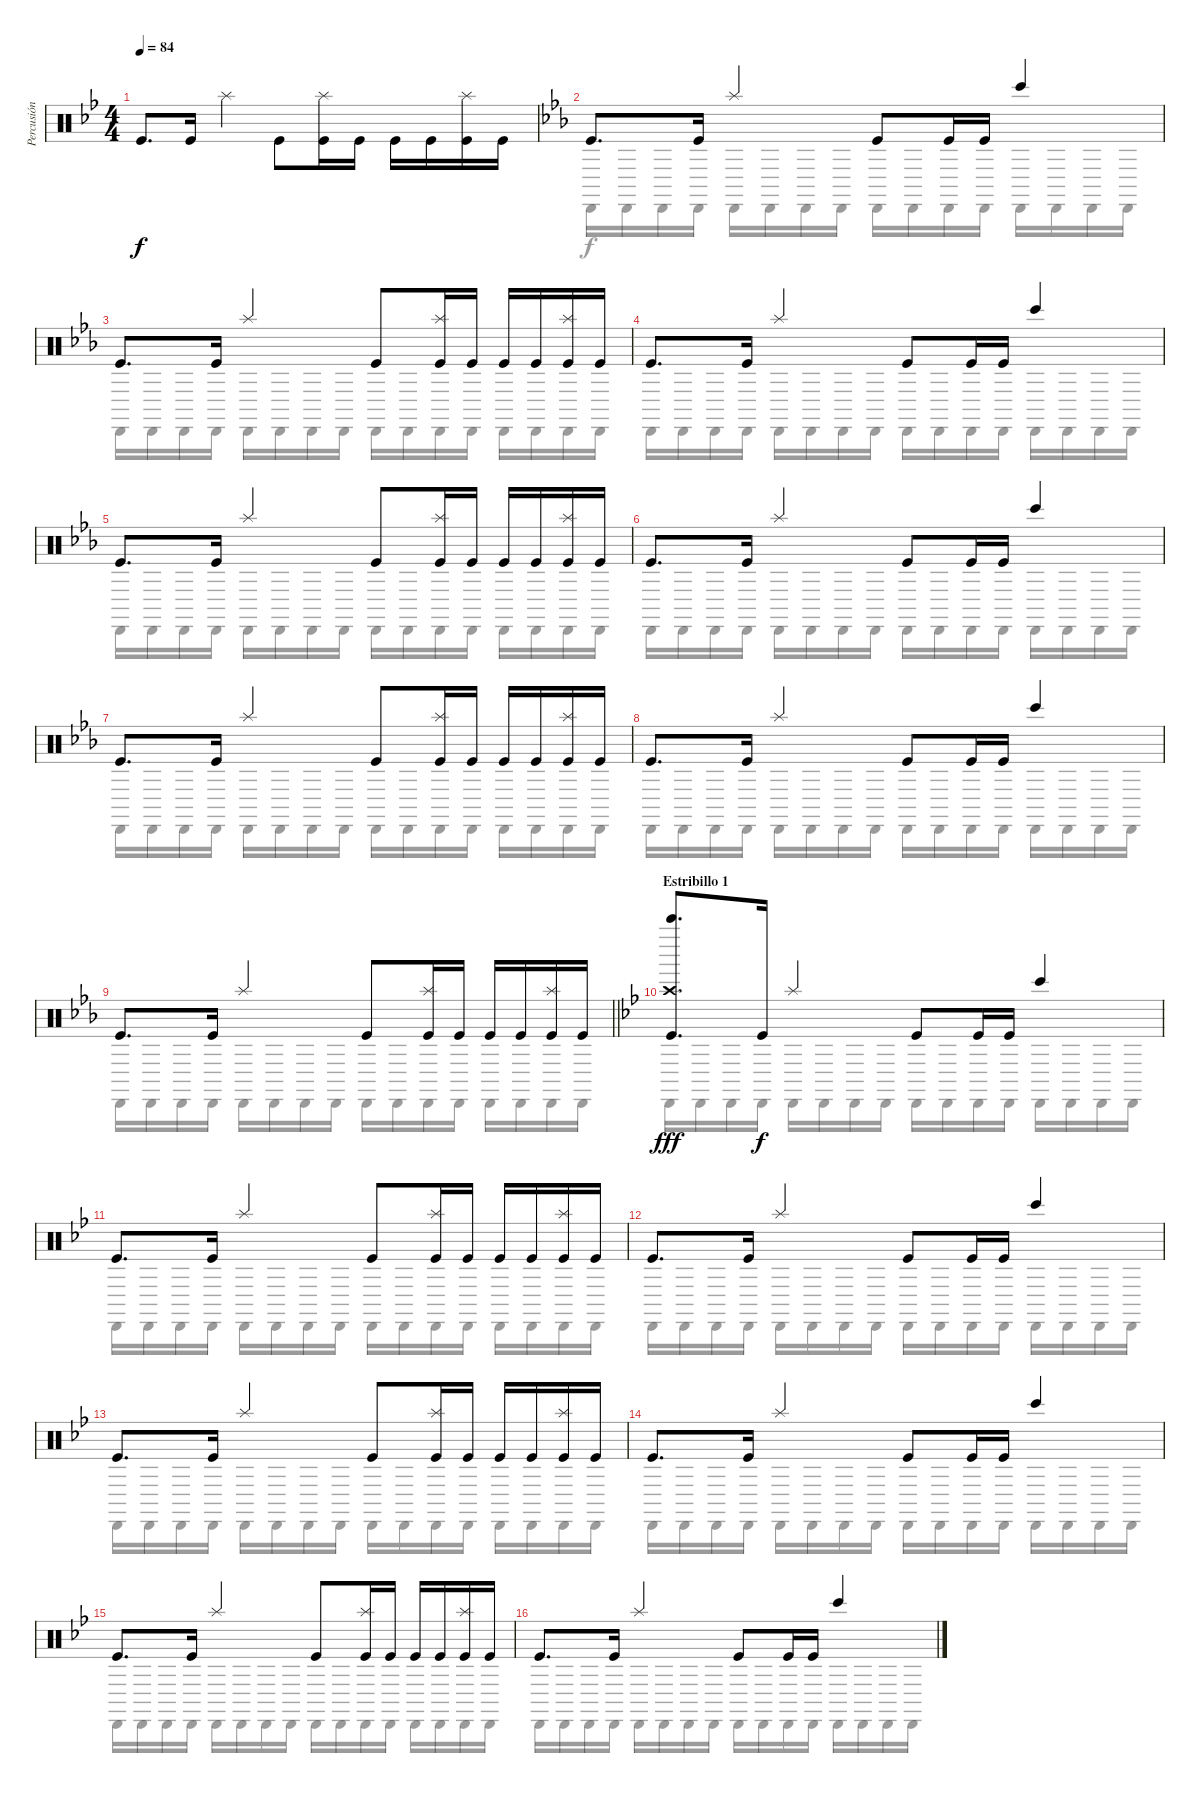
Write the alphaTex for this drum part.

\track ("Percusión" "Percusión") {instrument percussion}
\staff {score}
\articulation defaults
\voice
\ts (4 4)
\tempo 84
\clef neutral
\ks bb "Kick (hit)".8{d dy f} "Kick (hit)".16 "Splash (hit)".4 "Kick (hit)".8
("Splash (hit)" "Kick (hit)").16 "Kick (hit)".16 "Kick (hit)".16 "Kick (hit)".16 ("Splash (hit)" "Kick (hit)").16 "Kick (hit)".16 |
\ks eb "Kick (hit)".8{d} "Kick (hit)".16 "Splash (hit)".4 "Kick (hit)".8 "Kick (hit)".16 "Kick (hit)".16 "Bongo High (hit)".4
|
"Kick (hit)".8{d} "Kick (hit)".16 "Splash (hit)".4 "Kick (hit)".8 ("Splash (hit)" "Kick (hit)").16 "Kick (hit)".16 "Kick (hit)".16 "Kick (hit)".16 ("Splash (hit)" "Kick (hit)").16 "Kick (hit)".16 |
"Kick (hit)".8{d} "Kick (hit)".16 "Splash (hit)".4 "Kick (hit)".8 "Kick (hit)".16 "Kick (hit)".16 "Bongo High (hit)".4 |
"Kick (hit)".8{d} "Kick (hit)".16 "Splash (hit)".4 "Kick (hit)".8 ("Splash (hit)" "Kick (hit)").16 "Kick (hit)".16 "Kick (hit)".16 "Kick (hit)".16 ("Splash (hit)" "Kick (hit)").16 "Kick (hit)".16 |
"Kick (hit)".8{d} "Kick (hit)".16 "Splash (hit)".4 "Kick (hit)".8 "Kick (hit)".16 "Kick (hit)".16 "Bongo High (hit)".4 |
"Kick (hit)".8{d} "Kick (hit)".16 "Splash (hit)".4 "Kick (hit)".8 ("Splash (hit)" "Kick (hit)").16 "Kick (hit)".16 "Kick (hit)".16 "Kick (hit)".16 ("Splash (hit)" "Kick (hit)").16 "Kick (hit)".16 |
"Kick (hit)".8{d} "Kick (hit)".16 "Splash (hit)".4 "Kick (hit)".8 "Kick (hit)".16 "Kick (hit)".16 "Bongo High (hit)".4 |
\barLineRight lightlight "Kick (hit)".8{d} "Kick (hit)".16 "Splash (hit)".4 "Kick (hit)".8
("Splash (hit)" "Kick (hit)").16 "Kick (hit)".16 "Kick (hit)".16 "Kick (hit)".16 ("Splash (hit)" "Kick (hit)").16 "Kick (hit)".16 |
\section ("" "Estribillo 1")
\ks bb
("Bell Tree (hit)" "Crash high (hit)" "Kick (hit)").8{d dy fff} "Kick (hit)".16{dy f} "Splash (hit)".4 "Kick (hit)".8 "Kick (hit)".16 "Kick (hit)".16 "Bongo High (hit)".4 |
"Kick (hit)".8{d} "Kick (hit)".16 "Splash (hit)".4 "Kick (hit)".8 ("Splash (hit)" "Kick (hit)").16 "Kick (hit)".16 "Kick (hit)".16 "Kick (hit)".16 ("Splash (hit)" "Kick (hit)").16 "Kick (hit)".16 |
"Kick (hit)".8{d} "Kick (hit)".16 "Splash (hit)".4 "Kick (hit)".8 "Kick (hit)".16 "Kick (hit)".16 "Bongo High (hit)".4 |
"Kick (hit)".8{d} "Kick (hit)".16 "Splash (hit)".4 "Kick (hit)".8 ("Splash (hit)" "Kick (hit)").16 "Kick (hit)".16 "Kick (hit)".16 "Kick (hit)".16 ("Splash (hit)" "Kick (hit)").16 "Kick (hit)".16 |
"Kick (hit)".8{d} "Kick (hit)".16 "Splash (hit)".4 "Kick (hit)".8 "Kick (hit)".16 "Kick (hit)".16 "Bongo High (hit)".4 |
"Kick (hit)".8{d} "Kick (hit)".16 "Splash (hit)".4 "Kick (hit)".8 ("Splash (hit)" "Kick (hit)").16 "Kick (hit)".16 "Kick (hit)".16 "Kick (hit)".16 ("Splash (hit)" "Kick (hit)").16 "Kick (hit)".16 |
"Kick (hit)".8{d} "Kick (hit)".16 "Splash (hit)".4 "Kick (hit)".8 "Kick (hit)".16 "Kick (hit)".16 "Bongo High (hit)".4
\voice
\clef neutral
\ottava regular
\simile none
\ks bb
|
\ks eb "Cabasa (hit)".16 "Cabasa (hit)".16 "Cabasa (hit)".16 "Cabasa (hit)".16 "Cabasa (hit)".16 "Cabasa (hit)".16 "Cabasa (hit)".16 "Cabasa (hit)".16 "Cabasa (hit)".16 "Cabasa (hit)".16 "Cabasa (hit)".16 "Cabasa (hit)".16 "Cabasa (hit)".16 "Cabasa (hit)".16 "Cabasa (hit)".16 "Cabasa (hit)".16
|
"Cabasa (hit)".16 "Cabasa (hit)".16 "Cabasa (hit)".16 "Cabasa (hit)".16 "Cabasa (hit)".16 "Cabasa (hit)".16 "Cabasa (hit)".16 "Cabasa (hit)".16 "Cabasa (hit)".16 "Cabasa (hit)".16 "Cabasa (hit)".16 "Cabasa (hit)".16 "Cabasa (hit)".16 "Cabasa (hit)".16 "Cabasa (hit)".16 "Cabasa (hit)".16 |
"Cabasa (hit)".16 "Cabasa (hit)".16 "Cabasa (hit)".16 "Cabasa (hit)".16 "Cabasa (hit)".16 "Cabasa (hit)".16 "Cabasa (hit)".16 "Cabasa (hit)".16 "Cabasa (hit)".16 "Cabasa (hit)".16 "Cabasa (hit)".16 "Cabasa (hit)".16 "Cabasa (hit)".16 "Cabasa (hit)".16 "Cabasa (hit)".16 "Cabasa (hit)".16 |
"Cabasa (hit)".16 "Cabasa (hit)".16 "Cabasa (hit)".16 "Cabasa (hit)".16 "Cabasa (hit)".16 "Cabasa (hit)".16 "Cabasa (hit)".16 "Cabasa (hit)".16 "Cabasa (hit)".16 "Cabasa (hit)".16 "Cabasa (hit)".16 "Cabasa (hit)".16 "Cabasa (hit)".16 "Cabasa (hit)".16 "Cabasa (hit)".16 "Cabasa (hit)".16 |
"Cabasa (hit)".16 "Cabasa (hit)".16 "Cabasa (hit)".16 "Cabasa (hit)".16 "Cabasa (hit)".16 "Cabasa (hit)".16 "Cabasa (hit)".16 "Cabasa (hit)".16 "Cabasa (hit)".16 "Cabasa (hit)".16 "Cabasa (hit)".16 "Cabasa (hit)".16 "Cabasa (hit)".16 "Cabasa (hit)".16 "Cabasa (hit)".16 "Cabasa (hit)".16 |
"Cabasa (hit)".16 "Cabasa (hit)".16 "Cabasa (hit)".16 "Cabasa (hit)".16 "Cabasa (hit)".16 "Cabasa (hit)".16 "Cabasa (hit)".16 "Cabasa (hit)".16 "Cabasa (hit)".16 "Cabasa (hit)".16 "Cabasa (hit)".16 "Cabasa (hit)".16 "Cabasa (hit)".16 "Cabasa (hit)".16 "Cabasa (hit)".16 "Cabasa (hit)".16 |
"Cabasa (hit)".16 "Cabasa (hit)".16 "Cabasa (hit)".16 "Cabasa (hit)".16 "Cabasa (hit)".16 "Cabasa (hit)".16 "Cabasa (hit)".16 "Cabasa (hit)".16 "Cabasa (hit)".16 "Cabasa (hit)".16 "Cabasa (hit)".16 "Cabasa (hit)".16 "Cabasa (hit)".16 "Cabasa (hit)".16 "Cabasa (hit)".16 "Cabasa (hit)".16 |
\barLineRight lightlight "Cabasa (hit)".16 "Cabasa (hit)".16 "Cabasa (hit)".16 "Cabasa (hit)".16 "Cabasa (hit)".16 "Cabasa (hit)".16 "Cabasa (hit)".16 "Cabasa (hit)".16 "Cabasa (hit)".16 "Cabasa (hit)".16 "Cabasa (hit)".16 "Cabasa (hit)".16 "Cabasa (hit)".16 "Cabasa (hit)".16 "Cabasa (hit)".16 "Cabasa (hit)".16
|
\ks bb "Cabasa (hit)".16 "Cabasa (hit)".16 "Cabasa (hit)".16 "Cabasa (hit)".16 "Cabasa (hit)".16 "Cabasa (hit)".16 "Cabasa (hit)".16 "Cabasa (hit)".16 "Cabasa (hit)".16 "Cabasa (hit)".16 "Cabasa (hit)".16 "Cabasa (hit)".16 "Cabasa (hit)".16 "Cabasa (hit)".16 "Cabasa (hit)".16 "Cabasa (hit)".16
|
"Cabasa (hit)".16 "Cabasa (hit)".16 "Cabasa (hit)".16 "Cabasa (hit)".16 "Cabasa (hit)".16 "Cabasa (hit)".16 "Cabasa (hit)".16 "Cabasa (hit)".16 "Cabasa (hit)".16 "Cabasa (hit)".16 "Cabasa (hit)".16 "Cabasa (hit)".16 "Cabasa (hit)".16 "Cabasa (hit)".16 "Cabasa (hit)".16 "Cabasa (hit)".16 |
"Cabasa (hit)".16 "Cabasa (hit)".16 "Cabasa (hit)".16 "Cabasa (hit)".16 "Cabasa (hit)".16 "Cabasa (hit)".16 "Cabasa (hit)".16 "Cabasa (hit)".16 "Cabasa (hit)".16 "Cabasa (hit)".16 "Cabasa (hit)".16 "Cabasa (hit)".16 "Cabasa (hit)".16 "Cabasa (hit)".16 "Cabasa (hit)".16 "Cabasa (hit)".16 |
"Cabasa (hit)".16 "Cabasa (hit)".16 "Cabasa (hit)".16 "Cabasa (hit)".16 "Cabasa (hit)".16 "Cabasa (hit)".16 "Cabasa (hit)".16 "Cabasa (hit)".16 "Cabasa (hit)".16 "Cabasa (hit)".16 "Cabasa (hit)".16 "Cabasa (hit)".16 "Cabasa (hit)".16 "Cabasa (hit)".16 "Cabasa (hit)".16 "Cabasa (hit)".16 |
"Cabasa (hit)".16 "Cabasa (hit)".16 "Cabasa (hit)".16 "Cabasa (hit)".16 "Cabasa (hit)".16 "Cabasa (hit)".16 "Cabasa (hit)".16 "Cabasa (hit)".16 "Cabasa (hit)".16 "Cabasa (hit)".16 "Cabasa (hit)".16 "Cabasa (hit)".16 "Cabasa (hit)".16 "Cabasa (hit)".16 "Cabasa (hit)".16 "Cabasa (hit)".16 |
"Cabasa (hit)".16 "Cabasa (hit)".16 "Cabasa (hit)".16 "Cabasa (hit)".16 "Cabasa (hit)".16 "Cabasa (hit)".16 "Cabasa (hit)".16 "Cabasa (hit)".16 "Cabasa (hit)".16 "Cabasa (hit)".16 "Cabasa (hit)".16 "Cabasa (hit)".16 "Cabasa (hit)".16 "Cabasa (hit)".16 "Cabasa (hit)".16 "Cabasa (hit)".16 |
"Cabasa (hit)".16 "Cabasa (hit)".16 "Cabasa (hit)".16 "Cabasa (hit)".16 "Cabasa (hit)".16 "Cabasa (hit)".16 "Cabasa (hit)".16 "Cabasa (hit)".16 "Cabasa (hit)".16 "Cabasa (hit)".16 "Cabasa (hit)".16 "Cabasa (hit)".16 "Cabasa (hit)".16 "Cabasa (hit)".16 "Cabasa (hit)".16 "Cabasa (hit)".16
